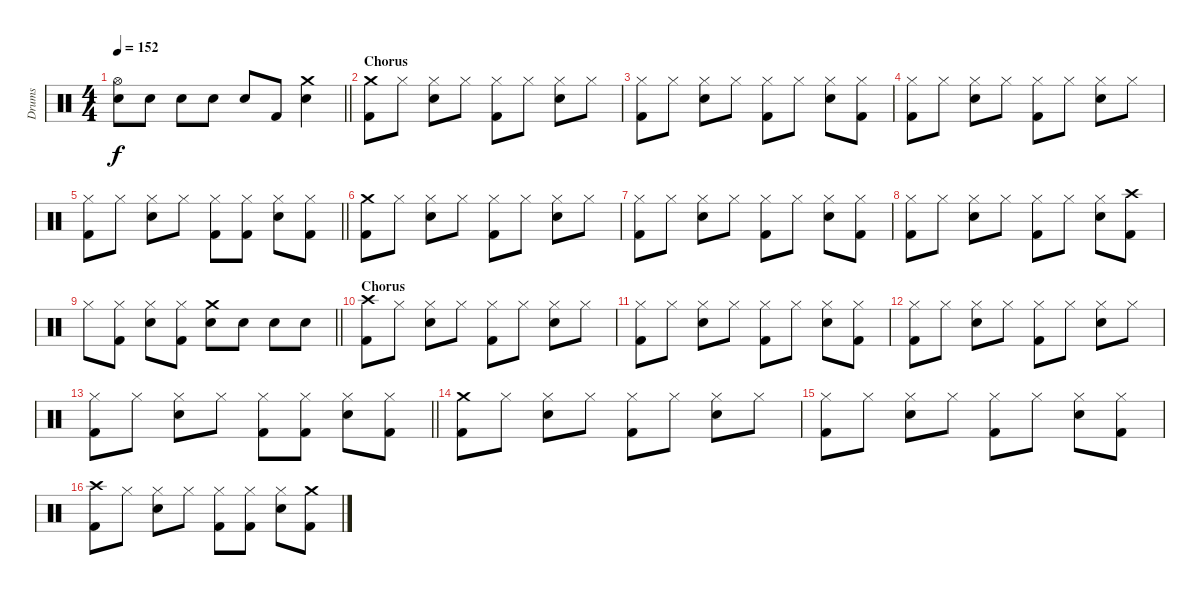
\track ("Drums" "Drums") {instrument percussion}
\staff
\articulation defaults
\ts (4 4)
\tempo 152
\clef neutral
\barLineRight lightlight
\ks c
("Hi-Hat (open)" "Electric Snare (hit)").8{dy f} "Electric Snare (hit)".8 "Electric Snare (hit)".8 "Electric Snare (hit)".8 "Electric Snare (hit)".8 "Kick (hit) 2".8 ("Crash medium (hit)" "Electric Snare (hit)").4 |
\section ("" "Chorus")
("Crash medium (hit)" "Kick (hit) 2").8 "Hi-Hat (closed)".8 ("Hi-Hat (closed)" "Electric Snare (hit)").8 "Hi-Hat (closed)".8 ("Hi-Hat (closed)" "Kick (hit) 2").8 "Hi-Hat (closed)".8 ("Hi-Hat (closed)" "Electric Snare (hit)").8 "Hi-Hat (closed)".8 |
("Hi-Hat (closed)" "Kick (hit) 2").8 "Hi-Hat (closed)".8 ("Hi-Hat (closed)" "Electric Snare (hit)").8 "Hi-Hat (closed)".8 ("Hi-Hat (closed)" "Kick (hit) 2").8 "Hi-Hat (closed)".8 ("Hi-Hat (closed)" "Electric Snare (hit)").8 ("Hi-Hat (closed)" "Kick (hit) 2").8 |
("Hi-Hat (closed)" "Kick (hit) 2").8 "Hi-Hat (closed)".8 ("Hi-Hat (closed)" "Electric Snare (hit)").8 "Hi-Hat (closed)".8 ("Hi-Hat (closed)" "Kick (hit) 2").8 "Hi-Hat (closed)".8 ("Hi-Hat (closed)" "Electric Snare (hit)").8 "Hi-Hat (closed)".8 |
\barLineRight lightlight
("Hi-Hat (closed)" "Kick (hit) 2").8 "Hi-Hat (closed)".8 ("Hi-Hat (closed)" "Electric Snare (hit)").8 "Hi-Hat (closed)".8 ("Hi-Hat (closed)" "Kick (hit) 2").8 ("Hi-Hat (closed)" "Kick (hit) 2").8 ("Hi-Hat (closed)" "Electric Snare (hit)").8 ("Hi-Hat (closed)" "Kick (hit) 2").8 |
("Crash medium (hit)" "Kick (hit) 2").8 "Hi-Hat (closed)".8 ("Hi-Hat (closed)" "Electric Snare (hit)").8 "Hi-Hat (closed)".8 ("Hi-Hat (closed)" "Kick (hit) 2").8 "Hi-Hat (closed)".8 ("Hi-Hat (closed)" "Electric Snare (hit)").8 "Hi-Hat (closed)".8 |
("Hi-Hat (closed)" "Kick (hit) 2").8 "Hi-Hat (closed)".8 ("Hi-Hat (closed)" "Electric Snare (hit)").8 "Hi-Hat (closed)".8 ("Hi-Hat (closed)" "Kick (hit) 2").8 "Hi-Hat (closed)".8 ("Hi-Hat (closed)" "Electric Snare (hit)").8 ("Hi-Hat (closed)" "Kick (hit) 2").8 |
("Hi-Hat (closed)" "Kick (hit) 2").8 "Hi-Hat (closed)".8 ("Hi-Hat (closed)" "Electric Snare (hit)").8 "Hi-Hat (closed)".8 ("Hi-Hat (closed)" "Kick (hit) 2").8 "Hi-Hat (closed)".8 ("Hi-Hat (closed)" "Electric Snare (hit)").8 ("Crash high (hit)" "Kick (hit) 2").8 |
\barLineRight lightlight "Hi-Hat (closed)".8
("Hi-Hat (closed)" "Kick (hit) 2").8 ("Hi-Hat (closed)" "Electric Snare (hit)").8 ("Hi-Hat (closed)" "Kick (hit) 2").8 ("Crash medium (hit)" "Electric Snare (hit)").8 "Electric Snare (hit)".8 "Electric Snare (hit)".8 "Electric Snare (hit)".8 |
\section ("" "Chorus")
("Crash high (hit)" "Kick (hit) 2").8 "Hi-Hat (closed)".8 ("Hi-Hat (closed)" "Electric Snare (hit)").8 "Hi-Hat (closed)".8 ("Hi-Hat (closed)" "Kick (hit) 2").8 "Hi-Hat (closed)".8 ("Hi-Hat (closed)" "Electric Snare (hit)").8 "Hi-Hat (closed)".8 |
("Hi-Hat (closed)" "Kick (hit) 2").8 "Hi-Hat (closed)".8 ("Hi-Hat (closed)" "Electric Snare (hit)").8 "Hi-Hat (closed)".8 ("Hi-Hat (closed)" "Kick (hit) 2").8 "Hi-Hat (closed)".8 ("Hi-Hat (closed)" "Electric Snare (hit)").8 ("Hi-Hat (closed)" "Kick (hit) 2").8 |
("Hi-Hat (closed)" "Kick (hit) 2").8 "Hi-Hat (closed)".8 ("Hi-Hat (closed)" "Electric Snare (hit)").8 "Hi-Hat (closed)".8 ("Hi-Hat (closed)" "Kick (hit) 2").8 "Hi-Hat (closed)".8 ("Hi-Hat (closed)" "Electric Snare (hit)").8 "Hi-Hat (closed)".8 |
\barLineRight lightlight
("Hi-Hat (closed)" "Kick (hit) 2").8 "Hi-Hat (closed)".8 ("Hi-Hat (closed)" "Electric Snare (hit)").8 "Hi-Hat (closed)".8 ("Hi-Hat (closed)" "Kick (hit) 2").8 ("Hi-Hat (closed)" "Kick (hit) 2").8 ("Hi-Hat (closed)" "Electric Snare (hit)").8 ("Hi-Hat (closed)" "Kick (hit) 2").8 |
("Crash medium (hit)" "Kick (hit) 2").8 "Hi-Hat (closed)".8 ("Hi-Hat (closed)" "Electric Snare (hit)").8 "Hi-Hat (closed)".8 ("Hi-Hat (closed)" "Kick (hit) 2").8 "Hi-Hat (closed)".8 ("Hi-Hat (closed)" "Electric Snare (hit)").8 "Hi-Hat (closed)".8 |
("Hi-Hat (closed)" "Kick (hit) 2").8 "Hi-Hat (closed)".8 ("Hi-Hat (closed)" "Electric Snare (hit)").8 "Hi-Hat (closed)".8 ("Hi-Hat (closed)" "Kick (hit) 2").8 "Hi-Hat (closed)".8 ("Hi-Hat (closed)" "Electric Snare (hit)").8 ("Hi-Hat (closed)" "Kick (hit) 2").8 |
("Crash high (hit)" "Kick (hit) 2").8 "Hi-Hat (closed)".8 ("Hi-Hat (closed)" "Electric Snare (hit)").8 "Hi-Hat (closed)".8 ("Hi-Hat (closed)" "Kick (hit) 2").8 ("Hi-Hat (closed)" "Kick (hit) 2").8 ("Hi-Hat (closed)" "Electric Snare (hit)").8 ("Crash medium (hit)" "Kick (hit) 2").8
